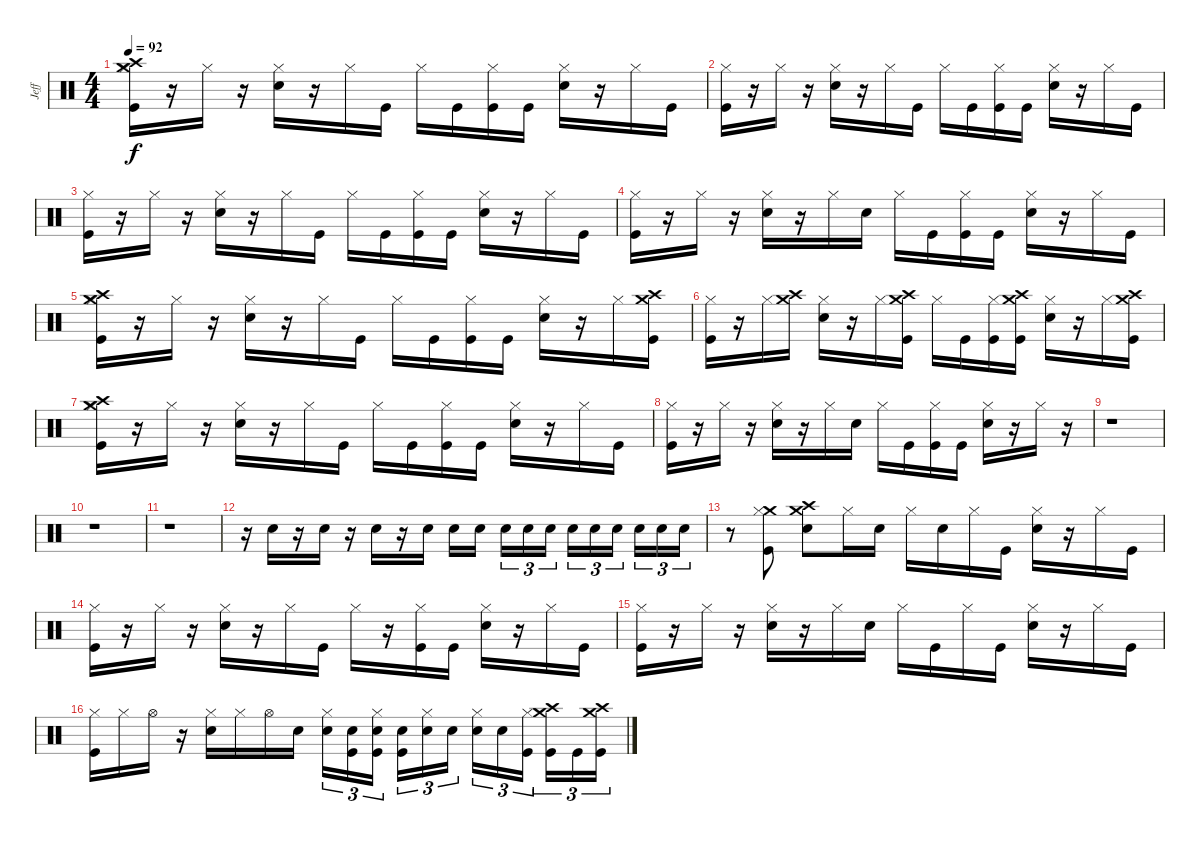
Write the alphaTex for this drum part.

\track ("Jeff" "Jeff") {instrument percussion}
\staff {score}
\articulation defaults
\ts (4 4)
\tempo 92
\clef neutral
\ks c
("Crash medium (hit)" "Hi-Hat (closed)" "Crash high (hit)" "Kick (hit)").16{dy f} r.16 "Hi-Hat (closed)".16 r.16 ("Electric Snare (hit)" "Hi-Hat (closed)").16 r.16 "Hi-Hat (closed)".16 "Kick (hit)".16 "Hi-Hat (closed)".16 "Kick (hit)".16 ("Hi-Hat (closed)" "Kick (hit)").16 "Kick (hit)".16 ("Electric Snare (hit)" "Hi-Hat (closed)").16 r.16 "Hi-Hat (closed)".16 "Kick (hit)".16 |
("Hi-Hat (closed)" "Kick (hit)").16 r.16 "Hi-Hat (closed)".16 r.16 ("Electric Snare (hit)" "Hi-Hat (closed)").16 r.16 "Hi-Hat (closed)".16 "Kick (hit)".16 "Hi-Hat (closed)".16 "Kick (hit)".16 ("Hi-Hat (closed)" "Kick (hit)").16 "Kick (hit)".16 ("Electric Snare (hit)" "Hi-Hat (closed)").16 r.16 "Hi-Hat (closed)".16 "Kick (hit)".16 |
("Hi-Hat (closed)" "Kick (hit)").16 r.16 "Hi-Hat (closed)".16 r.16 ("Electric Snare (hit)" "Hi-Hat (closed)").16 r.16 "Hi-Hat (closed)".16 "Kick (hit)".16 "Hi-Hat (closed)".16 "Kick (hit)".16 ("Hi-Hat (closed)" "Kick (hit)").16 "Kick (hit)".16 ("Electric Snare (hit)" "Hi-Hat (closed)").16 r.16 "Hi-Hat (closed)".16 "Kick (hit)".16 |
("Hi-Hat (closed)" "Kick (hit)").16 r.16 "Hi-Hat (closed)".16 r.16 ("Electric Snare (hit)" "Hi-Hat (closed)").16 r.16 "Hi-Hat (closed)".16 "Electric Snare (hit)".16 "Hi-Hat (closed)".16 "Kick (hit)".16 ("Hi-Hat (closed)" "Kick (hit)").16 "Kick (hit)".16 ("Electric Snare (hit)" "Hi-Hat (closed)").16 r.16 "Hi-Hat (closed)".16 "Kick (hit)".16 |
("Crash medium (hit)" "Hi-Hat (closed)" "Crash high (hit)" "Kick (hit)").16 r.16 "Hi-Hat (closed)".16 r.16 ("Electric Snare (hit)" "Hi-Hat (closed)").16 r.16 "Hi-Hat (closed)".16 "Kick (hit)".16 "Hi-Hat (closed)".16 "Kick (hit)".16 ("Hi-Hat (closed)" "Kick (hit)").16 "Kick (hit)".16 ("Electric Snare (hit)" "Hi-Hat (closed)").16 r.16 "Hi-Hat (closed)".16 ("Crash medium (hit)" "Crash high (hit)" "Kick (hit)").16 |
("Hi-Hat (closed)" "Kick (hit)").16 r.16 "Hi-Hat (closed)".16 ("Crash medium (hit)" "Crash high (hit)").16 ("Electric Snare (hit)" "Hi-Hat (closed)").16 r.16 "Hi-Hat (closed)".16 ("Crash medium (hit)" "Crash high (hit)" "Kick (hit)").16 "Hi-Hat (closed)".16 "Kick (hit)".16 ("Hi-Hat (closed)" "Kick (hit)").16 ("Crash medium (hit)" "Crash high (hit)" "Kick (hit)").16 ("Electric Snare (hit)" "Hi-Hat (closed)").16 r.16 "Hi-Hat (closed)".16 ("Crash medium (hit)" "Crash high (hit)" "Kick (hit)").16 |
("Crash medium (hit)" "Crash high (hit)" "Hi-Hat (closed)" "Kick (hit)").16 r.16 "Hi-Hat (closed)".16 r.16 ("Electric Snare (hit)" "Hi-Hat (closed)").16 r.16 "Hi-Hat (closed)".16 "Kick (hit)".16 "Hi-Hat (closed)".16 "Kick (hit)".16 ("Hi-Hat (closed)" "Kick (hit)").16 "Kick (hit)".16 ("Electric Snare (hit)" "Hi-Hat (closed)").16 r.16 "Hi-Hat (closed)".16 "Kick (hit)".16 |
("Hi-Hat (closed)" "Kick (hit)").16 r.16 "Hi-Hat (closed)".16 r.16 ("Electric Snare (hit)" "Hi-Hat (closed)").16 r.16 "Hi-Hat (closed)".16 "Electric Snare (hit)".16 "Hi-Hat (closed)".16 "Kick (hit)".16 ("Hi-Hat (closed)" "Kick (hit)").16 "Kick (hit)".16 ("Electric Snare (hit)" "Hi-Hat (closed)").16 r.16 "Hi-Hat (closed)".16 r.16 |
r.1 |
r.1 |
r.1 |
r.16 "Electric Snare (hit)".16 r.16 "Electric Snare (hit)".16 r.16 "Electric Snare (hit)".16 r.16 "Electric Snare (hit)".16 "Electric Snare (hit)".16 "Electric Snare (hit)".16 "Electric Snare (hit)".16{tu (3 2)} "Electric Snare (hit)".16{tu (3 2)} "Electric Snare (hit)".16{tu (3 2)} "Electric Snare (hit)".16{tu (3 2)} "Electric Snare (hit)".16{tu (3 2)} "Electric Snare (hit)".16{tu (3 2)} "Electric Snare (hit)".16{tu (3 2)} "Electric Snare (hit)".16{tu (3 2)} "Electric Snare (hit)".16{tu (3 2)} |
r.8 ("Crash medium (hit)" "Hi-Hat (closed)" "Kick (hit)").8 ("Electric Snare (hit)" "Crash medium (hit)" "Crash high (hit)").8 "Hi-Hat (closed)".16 "Electric Snare (hit)".16 "Hi-Hat (closed)".16 "Electric Snare (hit)".16 "Hi-Hat (closed)".16 "Kick (hit)".16 ("Electric Snare (hit)" "Hi-Hat (closed)").16 r.16 "Hi-Hat (closed)".16 "Kick (hit)".16 |
("Hi-Hat (closed)" "Kick (hit)").16 r.16 "Hi-Hat (closed)".16 r.16 ("Electric Snare (hit)" "Hi-Hat (closed)").16 r.16 "Hi-Hat (closed)".16 "Kick (hit)".16 "Hi-Hat (closed)".16 r.16 ("Hi-Hat (closed)" "Kick (hit)").16 "Kick (hit)".16 ("Electric Snare (hit)" "Hi-Hat (closed)").16 r.16 "Hi-Hat (closed)".16 "Kick (hit)".16 |
("Hi-Hat (closed)" "Kick (hit)").16 r.16 "Hi-Hat (closed)".16 r.16 ("Electric Snare (hit)" "Hi-Hat (closed)").16 r.16 "Hi-Hat (closed)".16 "Electric Snare (hit)".16 "Hi-Hat (closed)".16 "Kick (hit)".16 "Hi-Hat (closed)".16 "Kick (hit)".16 ("Electric Snare (hit)" "Hi-Hat (closed)").16 r.16 "Hi-Hat (closed)".16 "Kick (hit)".16 |
("Hi-Hat (closed)" "Kick (hit)").16 "Hi-Hat (closed)".16 "Hi-Hat (open)".16 r.16 ("Electric Snare (hit)" "Hi-Hat (closed)").16 "Hi-Hat (closed)".16 "Hi-Hat (open)".16 "Electric Snare (hit)".16 ("Electric Snare (hit)" "Hi-Hat (closed)").16{tu (3 2)} ("Electric Snare (hit)" "Kick (hit)").16{tu (3 2)} ("Electric Snare (hit)" "Hi-Hat (closed)" "Kick (hit)").16{tu (3 2)} ("Electric Snare (hit)" "Kick (hit)").16{tu (3 2)} ("Electric Snare (hit)" "Hi-Hat (closed)").16{tu (3 2)} "Electric Snare (hit)".16{tu (3 2)} ("Electric Snare (hit)" "Hi-Hat (closed)").16{tu (3 2)} "Electric Snare (hit)".16{tu (3 2)} ("Hi-Hat (closed)" "Kick (hit)").16{tu (3 2)} ("Crash medium (hit)" "Crash high (hit)" "Kick (hit)").16{tu (3 2)} "Kick (hit)".16{tu (3 2)} ("Crash medium (hit)" "Crash high (hit)" "Kick (hit)").16{tu (3 2)}
